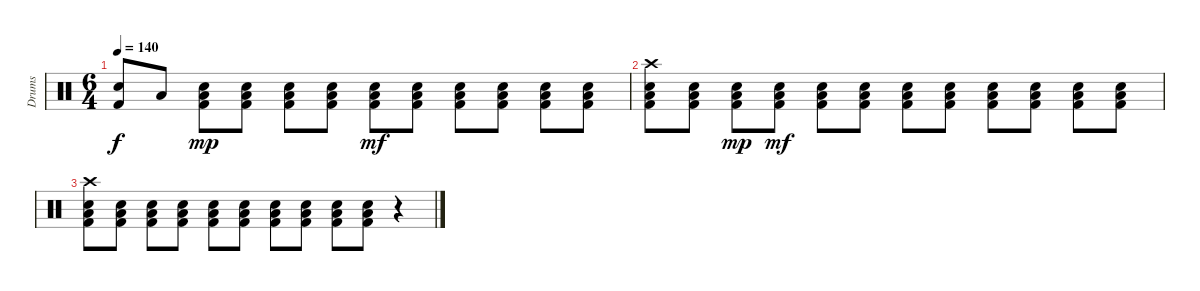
\track ("Drums" "Drums") {instrument percussion}
\staff {score}
\articulation defaults
\ts (6 4)
\tempo 140
\clef neutral
\ks c
("Snare (hit) 2" "Kick (hit) 2").8{dy f} "Low Tom (hit)".8 ("Snare (hit) 2" "Low Floor Tom (hit)" "Kick (hit) 2").8{dy mp} ("Snare (hit) 2" "Low Floor Tom (hit)" "Kick (hit) 2").8 ("Snare (hit) 2" "Low Floor Tom (hit)" "Kick (hit) 2").8 ("Snare (hit) 2" "Low Floor Tom (hit)" "Kick (hit) 2").8 ("Snare (hit) 2" "Low Floor Tom (hit)" "Kick (hit) 2").8{dy mf} ("Snare (hit) 2" "Low Floor Tom (hit)" "Kick (hit) 2").8 ("Snare (hit) 2" "Low Floor Tom (hit)" "Kick (hit) 2").8 ("Snare (hit) 2" "Low Floor Tom (hit)" "Kick (hit) 2").8 ("Snare (hit) 2" "Low Floor Tom (hit)" "Kick (hit) 2").8 ("Snare (hit) 2" "Low Floor Tom (hit)" "Kick (hit) 2").8 |
("Crash high (hit)" "Snare (hit) 2" "Low Floor Tom (hit)" "Kick (hit) 2").8 ("Snare (hit) 2" "Low Floor Tom (hit)" "Kick (hit) 2").8 ("Snare (hit) 2" "Low Floor Tom (hit)" "Kick (hit) 2").8{dy mp} ("Snare (hit) 2" "Low Floor Tom (hit)" "Kick (hit) 2").8{dy mf} ("Snare (hit) 2" "Low Floor Tom (hit)" "Kick (hit) 2").8 ("Snare (hit) 2" "Low Floor Tom (hit)" "Kick (hit) 2").8 ("Snare (hit) 2" "Low Floor Tom (hit)" "Kick (hit) 2").8 ("Snare (hit) 2" "Low Floor Tom (hit)" "Kick (hit) 2").8 ("Snare (hit) 2" "Low Floor Tom (hit)" "Kick (hit) 2").8 ("Snare (hit) 2" "Low Floor Tom (hit)" "Kick (hit) 2").8 ("Snare (hit) 2" "Low Floor Tom (hit)" "Kick (hit) 2").8 ("Snare (hit) 2" "Low Floor Tom (hit)" "Kick (hit) 2").8 |
("Crash high (hit)" "Snare (hit) 2" "Low Floor Tom (hit)" "Kick (hit) 2").8 ("Snare (hit) 2" "Low Floor Tom (hit)" "Kick (hit) 2").8 ("Snare (hit) 2" "Low Floor Tom (hit)" "Kick (hit) 2").8 ("Snare (hit) 2" "Low Floor Tom (hit)" "Kick (hit) 2").8 ("Snare (hit) 2" "Low Floor Tom (hit)" "Kick (hit) 2").8 ("Snare (hit) 2" "Low Floor Tom (hit)" "Kick (hit) 2").8 ("Snare (hit) 2" "Low Floor Tom (hit)" "Kick (hit) 2").8 ("Snare (hit) 2" "Low Floor Tom (hit)" "Kick (hit) 2").8 ("Snare (hit) 2" "Low Floor Tom (hit)" "Kick (hit) 2").8 ("Snare (hit) 2" "Low Floor Tom (hit)" "Kick (hit) 2").8 r.4
